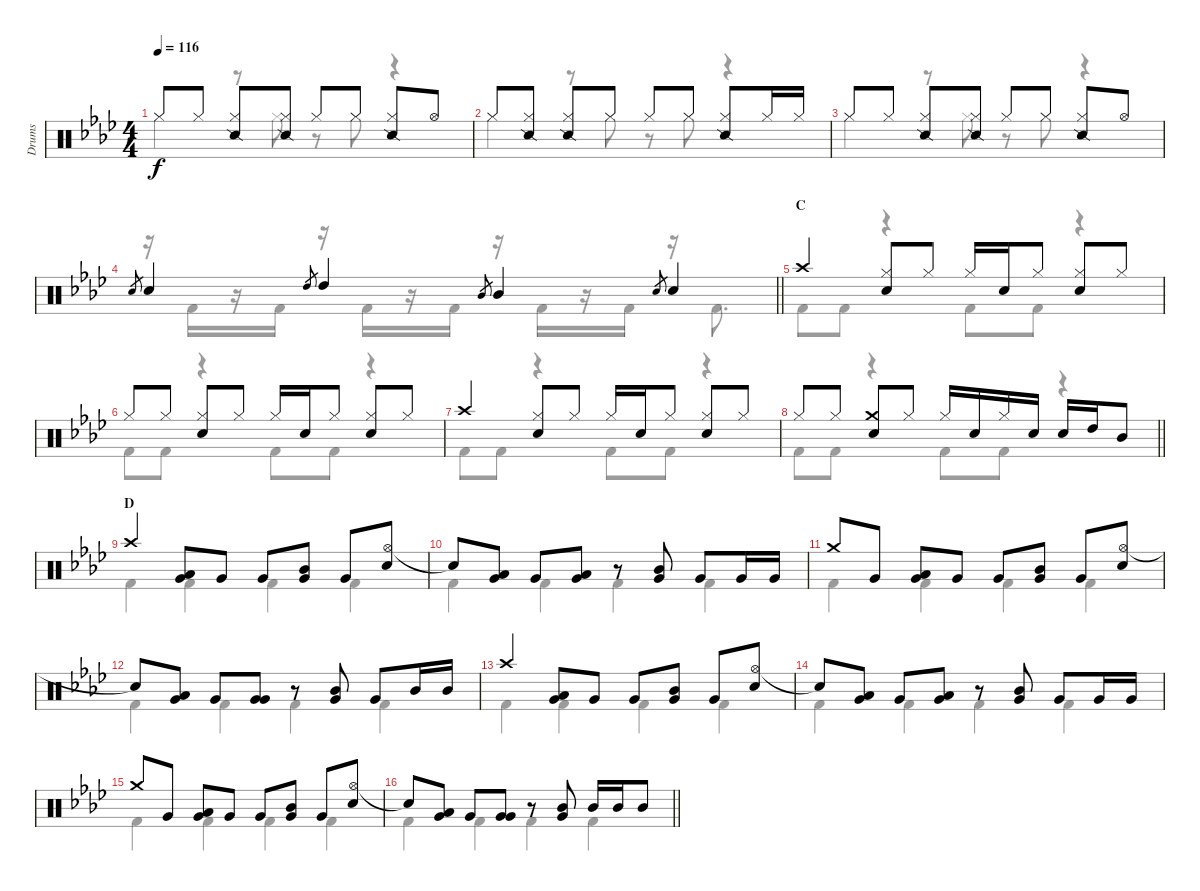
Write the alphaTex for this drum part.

\track ("Drums" "Drums") {instrument percussion}
\staff {score}
\articulation defaults
\voice
\ts (4 4)
\tempo 116
\clef neutral
\ks ab "Hi-Hat (closed)".8{dy f} "Hi-Hat (closed)".8
("Hi-Hat (closed)" "Snare (side stick) 2").8 ("Hi-Hat (closed)" "Snare (side stick) 2").8 "Hi-Hat (closed)".8 "Hi-Hat (closed)".8 ("Hi-Hat (closed)" "Snare (side stick) 2").8 "Hi-Hat (open)".8 |
"Hi-Hat (closed)".8 ("Hi-Hat (closed)" "Snare (side stick) 2").8 ("Hi-Hat (closed)" "Snare (side stick) 2").8 "Hi-Hat (closed)".8 "Hi-Hat (closed)".8 "Hi-Hat (closed)".8 ("Hi-Hat (closed)" "Snare (side stick) 2").8 "Hi-Hat (closed)".16 "Hi-Hat (closed)".16 |
"Hi-Hat (closed)".8 "Hi-Hat (closed)".8 ("Hi-Hat (closed)" "Snare (side stick) 2").8 ("Hi-Hat (closed)" "Snare (side stick) 2").8 "Hi-Hat (closed)".8 "Hi-Hat (closed)".8 ("Hi-Hat (closed)" "Snare (side stick) 2").8 "Hi-Hat (open)".8 |
\barLineRight lightlight "Snare (hit) 2".8{gr} "Snare (hit) 2".4 "High Tom (hit)".8{gr} "High Tom (hit)".4 "Mid Tom (hit)".8{gr} "Mid Tom (hit)".4 "Snare (hit) 2".8{gr} "Snare (hit) 2".4
|
\section ("" "C")
"Crash high (hit)".4 ("Hi-Hat (closed)" "Snare (hit) 2").8 "Hi-Hat (closed)".8 "Hi-Hat (closed)".16 "Snare (hit) 2".16 "Hi-Hat (closed)".8 ("Hi-Hat (closed)" "Snare (hit) 2").8 "Hi-Hat (closed)".8 |
"Hi-Hat (closed)".8 "Hi-Hat (closed)".8 ("Hi-Hat (closed)" "Snare (hit) 2").8 "Hi-Hat (closed)".8 "Hi-Hat (closed)".16 "Snare (hit) 2".16 "Hi-Hat (closed)".8 ("Hi-Hat (closed)" "Snare (hit) 2").8 "Hi-Hat (closed)".8 |
"Crash high (hit)".4 ("Hi-Hat (closed)" "Snare (hit) 2").8 "Hi-Hat (closed)".8 "Hi-Hat (closed)".16 "Snare (hit) 2".16 "Hi-Hat (closed)".8 ("Hi-Hat (closed)" "Snare (hit) 2").8 "Hi-Hat (closed)".8 |
\barLineRight lightlight "Hi-Hat (closed)".8 "Hi-Hat (closed)".8
("Crash medium (hit)" "Snare (hit) 2").8 "Hi-Hat (closed)".8 "Hi-Hat (closed)".16 "Snare (hit) 2".16 "Hi-Hat (closed)".16 "Snare (hit) 2".16 "Snare (hit) 2".16 "High Tom (hit)".16 "Mid Tom (hit)".8 |
\section ("" "D")
"Crash high (hit)".4 ("Low Tom (hit)" "Very Low Tom (hit)").8 "Very Low Tom (hit)".8 "Very Low Tom (hit)".8 ("Mid Tom (hit)" "Very Low Tom (hit)").8 "Very Low Tom (hit)".8 ("Hi-Hat (open)" "Snare (hit) 2").8 |
"Snare (hit)"{t}.8 ("Low Tom (hit)" "Very Low Tom (hit)").8 "Very Low Tom (hit)".8 ("Low Tom (hit)" "Very Low Tom (hit)").8 r.8 ("Mid Tom (hit)" "Very Low Tom (hit)").8 "Very Low Tom (hit)".8 "Very Low Tom (hit)".16 "Very Low Tom (hit)".16 |
"Crash medium (hit)".8 "Very Low Tom (hit)".8 ("Low Tom (hit)" "Very Low Tom (hit)").8 "Very Low Tom (hit)".8 "Very Low Tom (hit)".8 ("Mid Tom (hit)" "Very Low Tom (hit)").8 "Very Low Tom (hit)".8 ("Hi-Hat (open)" "Snare (hit) 2").8 |
"Snare (hit)"{t}.8 ("Low Tom (hit)" "Very Low Tom (hit)").8 "Very Low Tom (hit)".8 ("Very Low Tom (hit)" "Very Low Tom (hit)").8 r.8 ("Mid Tom (hit)" "Very Low Tom (hit)").8 "Very Low Tom (hit)".8 "Mid Tom (hit)".16 "Mid Tom (hit)".16 |
"Crash high (hit)".4 ("Low Tom (hit)" "Very Low Tom (hit)").8 "Very Low Tom (hit)".8 "Very Low Tom (hit)".8 ("Mid Tom (hit)" "Very Low Tom (hit)").8 "Very Low Tom (hit)".8 ("Hi-Hat (open)" "Snare (hit) 2").8 |
"Snare (hit)"{t}.8 ("Low Tom (hit)" "Very Low Tom (hit)").8 "Very Low Tom (hit)".8 ("Low Tom (hit)" "Very Low Tom (hit)").8 r.8 ("Mid Tom (hit)" "Very Low Tom (hit)").8 "Very Low Tom (hit)".8 "Very Low Tom (hit)".16 "Very Low Tom (hit)".16 |
"Crash medium (hit)".8 "Very Low Tom (hit)".8 ("Low Tom (hit)" "Very Low Tom (hit)").8 "Very Low Tom (hit)".8 "Very Low Tom (hit)".8 ("Mid Tom (hit)" "Very Low Tom (hit)").8 "Very Low Tom (hit)".8 ("Hi-Hat (open)" "Snare (hit) 2").8 |
\barLineRight lightlight "Snare (hit)"{t}.8
("Low Tom (hit)" "Very Low Tom (hit)").8 "Very Low Tom (hit)".8 ("Very Low Tom (hit)" "Very Low Tom (hit)").8 r.8 ("Mid Tom (hit)" "Very Low Tom (hit)").8 "Mid Tom (hit)".16 "Mid Tom (hit)".16 "Mid Tom (hit)".8
\voice
\clef neutral
\ottava regular
\simile none
\ks ab "Hi-Hat (closed)".4{dy f}
r.8 "Hi-Hat (closed)".8 r.8 "Hi-Hat (closed)".8 r.4 |
"Hi-Hat (closed)".4 r.8 "Hi-Hat (closed)".8 r.8 "Hi-Hat (closed)".8 r.4 |
"Hi-Hat (closed)".4 r.8 "Hi-Hat (closed)".8 r.8 "Hi-Hat (closed)".8 r.4 |
\barLineRight lightlight
r.16 "Kick (hit) 2".16 r.16 "Kick (hit) 2".16 r.16 "Kick (hit) 2".16 r.16 "Kick (hit) 2".16 r.16 "Kick (hit) 2".16 r.16 "Kick (hit) 2".16 r.16 "Kick (hit) 2".8{d} |
"Kick (hit) 2".8 "Kick (hit) 2".8 r.4 "Kick (hit) 2".8 "Kick (hit) 2".8 r.4 |
"Kick (hit) 2".8 "Kick (hit) 2".8 r.4 "Kick (hit) 2".8 "Kick (hit) 2".8 r.4 |
"Kick (hit) 2".8 "Kick (hit) 2".8 r.4 "Kick (hit) 2".8 "Kick (hit) 2".8 r.4 |
\barLineRight lightlight "Kick (hit) 2".8 "Kick (hit) 2".8
r.4 "Kick (hit) 2".8 "Kick (hit) 2".8 r.4 |
"Kick (hit) 2".4 "Kick (hit) 2".4 "Kick (hit) 2".4 "Kick (hit) 2".4 |
"Kick (hit) 2".4 "Kick (hit) 2".4 "Kick (hit) 2".4 "Kick (hit) 2".4 |
"Kick (hit) 2".4 "Kick (hit) 2".4 "Kick (hit) 2".4 "Kick (hit) 2".4 |
"Kick (hit) 2".4 "Kick (hit) 2".4 "Kick (hit) 2".4 "Kick (hit) 2".4 |
"Kick (hit) 2".4 "Kick (hit) 2".4 "Kick (hit) 2".4 "Kick (hit) 2".4 |
"Kick (hit) 2".4 "Kick (hit) 2".4 "Kick (hit) 2".4 "Kick (hit) 2".4 |
"Kick (hit) 2".4 "Kick (hit) 2".4 "Kick (hit) 2".4 "Kick (hit) 2".4 |
\barLineRight lightlight "Kick (hit) 2".4 "Kick (hit) 2".4 "Kick (hit) 2".4 "Kick (hit) 2".4
